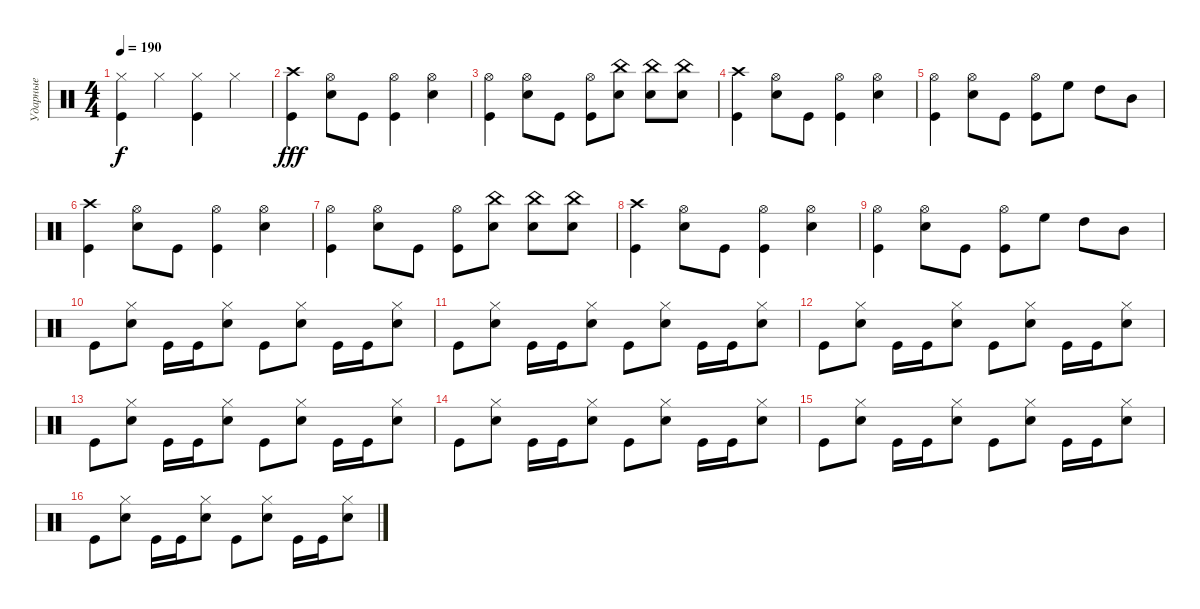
\track ("Ударные" "Ударные") {instrument percussion}
\staff {score}
\articulation defaults
\ts (4 4)
\tempo 190
\clef neutral
\ks c
("Hi-Hat (closed)" "Kick (hit)").4{dy f} "Hi-Hat (closed)".4 ("Hi-Hat (closed)" "Kick (hit)").4 "Hi-Hat (closed)".4 |
("Kick (hit)" "Crash high (hit)").4{dy fff} ("Snare (hit) 2" "Hi-Hat (open)").8 "Kick (hit)".8 ("Kick (hit)" "Hi-Hat (open)").4 ("Snare (hit) 2" "Hi-Hat (open)").4 |
("Kick (hit)" "Hi-Hat (open)").4 ("Snare (hit) 2" "Hi-Hat (open)").8 "Kick (hit)".8 ("Kick (hit)" "Hi-Hat (open)").8 ("Snare (hit) 2" "China (hit)").8 ("Snare (hit) 2" "China (hit)").8 ("Snare (hit) 2" "China (hit)").8 |
("Kick (hit)" "Crash high (hit)").4 ("Snare (hit) 2" "Hi-Hat (open)").8 "Kick (hit)".8 ("Kick (hit)" "Hi-Hat (open)").4 ("Snare (hit) 2" "Hi-Hat (open)").4 |
("Kick (hit)" "Hi-Hat (open)").4 ("Snare (hit) 2" "Hi-Hat (open)").8 "Kick (hit)".8 ("Kick (hit)" "Hi-Hat (open)").8 "High Floor Tom (hit)".8 "High Tom (hit)".8 "Mid Tom (hit)".8 |
("Kick (hit)" "Crash high (hit)").4 ("Snare (hit) 2" "Hi-Hat (open)").8 "Kick (hit)".8 ("Kick (hit)" "Hi-Hat (open)").4 ("Snare (hit) 2" "Hi-Hat (open)").4 |
("Kick (hit)" "Hi-Hat (open)").4 ("Snare (hit) 2" "Hi-Hat (open)").8 "Kick (hit)".8 ("Kick (hit)" "Hi-Hat (open)").8 ("Snare (hit) 2" "China (hit)").8 ("Snare (hit) 2" "China (hit)").8 ("Snare (hit) 2" "China (hit)").8 |
("Kick (hit)" "Crash high (hit)").4 ("Snare (hit) 2" "Hi-Hat (open)").8 "Kick (hit)".8 ("Kick (hit)" "Hi-Hat (open)").4 ("Snare (hit) 2" "Hi-Hat (open)").4 |
("Kick (hit)" "Hi-Hat (open)").4 ("Snare (hit) 2" "Hi-Hat (open)").8 "Kick (hit)".8 ("Kick (hit)" "Hi-Hat (open)").8 "High Floor Tom (hit)".8 "High Tom (hit)".8 "Mid Tom (hit)".8 |
"Kick (hit)".8 ("Snare (hit) 2" "Hi-Hat (closed)").8 "Kick (hit)".16 "Kick (hit)".16 ("Snare (hit) 2" "Hi-Hat (closed)").8 "Kick (hit)".8 ("Snare (hit) 2" "Hi-Hat (closed)").8 "Kick (hit)".16 "Kick (hit)".16 ("Snare (hit) 2" "Hi-Hat (closed)").8 |
"Kick (hit)".8 ("Snare (hit) 2" "Hi-Hat (closed)").8 "Kick (hit)".16 "Kick (hit)".16 ("Snare (hit) 2" "Hi-Hat (closed)").8 "Kick (hit)".8 ("Snare (hit) 2" "Hi-Hat (closed)").8 "Kick (hit)".16 "Kick (hit)".16 ("Snare (hit) 2" "Hi-Hat (closed)").8 |
"Kick (hit)".8 ("Snare (hit) 2" "Hi-Hat (closed)").8 "Kick (hit)".16 "Kick (hit)".16 ("Snare (hit) 2" "Hi-Hat (closed)").8 "Kick (hit)".8 ("Snare (hit) 2" "Hi-Hat (closed)").8 "Kick (hit)".16 "Kick (hit)".16 ("Snare (hit) 2" "Hi-Hat (closed)").8 |
"Kick (hit)".8 ("Snare (hit) 2" "Hi-Hat (closed)").8 "Kick (hit)".16 "Kick (hit)".16 ("Snare (hit) 2" "Hi-Hat (closed)").8 "Kick (hit)".8 ("Snare (hit) 2" "Hi-Hat (closed)").8 "Kick (hit)".16 "Kick (hit)".16 ("Snare (hit) 2" "Hi-Hat (closed)").8 |
"Kick (hit)".8 ("Snare (hit) 2" "Hi-Hat (closed)").8 "Kick (hit)".16 "Kick (hit)".16 ("Snare (hit) 2" "Hi-Hat (closed)").8 "Kick (hit)".8 ("Snare (hit) 2" "Hi-Hat (closed)").8 "Kick (hit)".16 "Kick (hit)".16 ("Snare (hit) 2" "Hi-Hat (closed)").8 |
"Kick (hit)".8 ("Snare (hit) 2" "Hi-Hat (closed)").8 "Kick (hit)".16 "Kick (hit)".16 ("Snare (hit) 2" "Hi-Hat (closed)").8 "Kick (hit)".8 ("Snare (hit) 2" "Hi-Hat (closed)").8 "Kick (hit)".16 "Kick (hit)".16 ("Snare (hit) 2" "Hi-Hat (closed)").8 |
"Kick (hit)".8 ("Snare (hit) 2" "Hi-Hat (closed)").8 "Kick (hit)".16 "Kick (hit)".16 ("Snare (hit) 2" "Hi-Hat (closed)").8 "Kick (hit)".8 ("Snare (hit) 2" "Hi-Hat (closed)").8 "Kick (hit)".16 "Kick (hit)".16 ("Snare (hit) 2" "Hi-Hat (closed)").8
